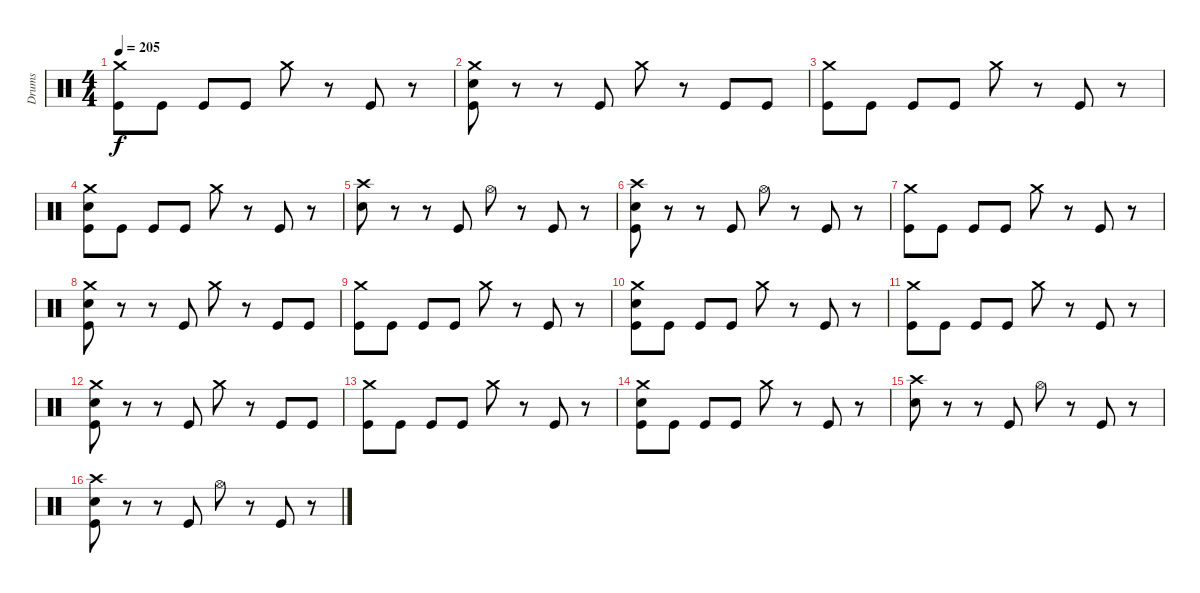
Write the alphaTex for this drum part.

\track ("Drums" "Drums") {instrument percussion}
\staff {score}
\articulation defaults
\ts (4 4)
\tempo 205
\clef neutral
\ks c
("Crash medium (hit)" "Kick (hit)").8{dy f} "Kick (hit)".8 "Kick (hit)".8 "Kick (hit)".8 "Crash medium (hit)".8 r.8 "Kick (hit)".8 r.8 |
("Electric Snare (hit)" "Crash medium (hit)" "Kick (hit)").8 r.8 r.8 "Kick (hit)".8 "Crash medium (hit)".8 r.8 "Kick (hit)".8 "Kick (hit)".8 |
("Crash medium (hit)" "Kick (hit)").8 "Kick (hit)".8 "Kick (hit)".8 "Kick (hit)".8 "Crash medium (hit)".8 r.8 "Kick (hit)".8 r.8 |
("Electric Snare (hit)" "Crash medium (hit)" "Kick (hit)").8 "Kick (hit)".8 "Kick (hit)".8 "Kick (hit)".8 "Crash medium (hit)".8 r.8 "Kick (hit)".8 r.8 |
("Electric Snare (hit)" "Crash high (hit)").8 r.8 r.8 "Kick (hit)".8 "Hi-Hat (open)".8 r.8 "Kick (hit)".8 r.8 |
("Electric Snare (hit)" "Crash high (hit)" "Kick (hit)").8 r.8 r.8 "Kick (hit)".8 "Hi-Hat (open)".8 r.8 "Kick (hit)".8 r.8 |
("Crash medium (hit)" "Kick (hit)").8 "Kick (hit)".8 "Kick (hit)".8 "Kick (hit)".8 "Crash medium (hit)".8 r.8 "Kick (hit)".8 r.8 |
("Electric Snare (hit)" "Crash medium (hit)" "Kick (hit)").8 r.8 r.8 "Kick (hit)".8 "Crash medium (hit)".8 r.8 "Kick (hit)".8 "Kick (hit)".8 |
("Crash medium (hit)" "Kick (hit)").8 "Kick (hit)".8 "Kick (hit)".8 "Kick (hit)".8 "Crash medium (hit)".8 r.8 "Kick (hit)".8 r.8 |
("Electric Snare (hit)" "Crash medium (hit)" "Kick (hit)").8 "Kick (hit)".8 "Kick (hit)".8 "Kick (hit)".8 "Crash medium (hit)".8 r.8 "Kick (hit)".8 r.8 |
("Crash medium (hit)" "Kick (hit)").8 "Kick (hit)".8 "Kick (hit)".8 "Kick (hit)".8 "Crash medium (hit)".8 r.8 "Kick (hit)".8 r.8 |
("Electric Snare (hit)" "Crash medium (hit)" "Kick (hit)").8 r.8 r.8 "Kick (hit)".8 "Crash medium (hit)".8 r.8 "Kick (hit)".8 "Kick (hit)".8 |
("Crash medium (hit)" "Kick (hit)").8 "Kick (hit)".8 "Kick (hit)".8 "Kick (hit)".8 "Crash medium (hit)".8 r.8 "Kick (hit)".8 r.8 |
("Electric Snare (hit)" "Crash medium (hit)" "Kick (hit)").8 "Kick (hit)".8 "Kick (hit)".8 "Kick (hit)".8 "Crash medium (hit)".8 r.8 "Kick (hit)".8 r.8 |
("Electric Snare (hit)" "Crash high (hit)").8 r.8 r.8 "Kick (hit)".8 "Hi-Hat (open)".8 r.8 "Kick (hit)".8 r.8 |
("Electric Snare (hit)" "Crash high (hit)" "Kick (hit)").8 r.8 r.8 "Kick (hit)".8 "Hi-Hat (open)".8 r.8 "Kick (hit)".8 r.8
